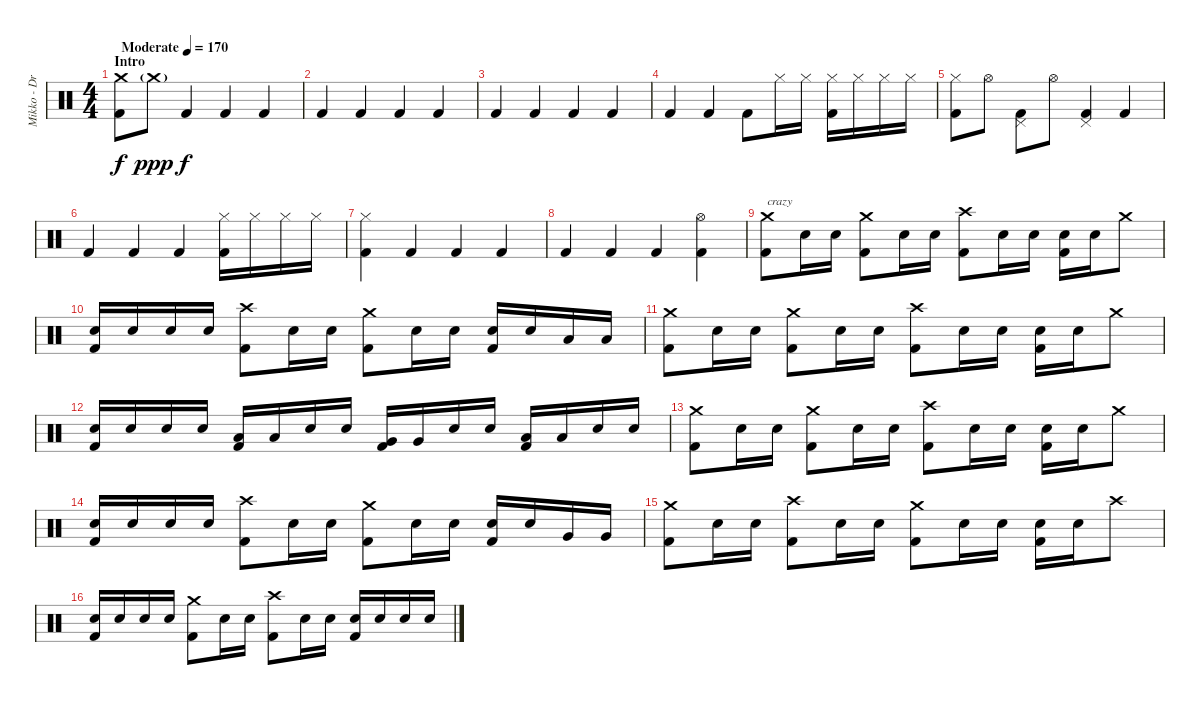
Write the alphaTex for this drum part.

\track ("Mikko - Drums" "Mikko - Dr") {instrument percussion}
\staff {score}
\articulation defaults
\ts (4 4)
\section ("" "Intro")
\tempo (170 "Moderate")
\clef neutral
\ks c
("Crash medium (hit)" "Kick (hit) 2").8{dy f} "Crash medium (hit)"{g}.8{dy ppp} "Kick (hit) 2".4{dy f} "Kick (hit) 2".4 "Kick (hit) 2".4 |
"Kick (hit) 2".4 "Kick (hit) 2".4 "Kick (hit) 2".4 "Kick (hit) 2".4 |
"Kick (hit) 2".4 "Kick (hit) 2".4 "Kick (hit) 2".4 "Kick (hit) 2".4 |
"Kick (hit) 2".4 "Kick (hit) 2".4 "Kick (hit) 2".8 "Hi-Hat (closed)".16 "Hi-Hat (closed)".16 ("Hi-Hat (closed)" "Kick (hit) 2").16 "Hi-Hat (closed)".16 "Hi-Hat (closed)".16 "Hi-Hat (closed)".16 |
("Hi-Hat (closed)" "Kick (hit) 2").8 "Hi-Hat (open)".8 ("Pedal Hi-Hat (hit)" "Kick (hit) 2").8 "Hi-Hat (open)".8 ("Pedal Hi-Hat (hit)" "Kick (hit) 2").4 "Kick (hit) 2".4 |
"Kick (hit) 2".4 "Kick (hit) 2".4 "Kick (hit) 2".4 ("Hi-Hat (closed)" "Kick (hit) 2").16 "Hi-Hat (closed)".16 "Hi-Hat (closed)".16 "Hi-Hat (closed)".16 |
("Hi-Hat (closed)" "Kick (hit) 2").4 "Kick (hit) 2".4 "Kick (hit) 2".4 "Kick (hit) 2".4 |
"Kick (hit) 2".4 "Kick (hit) 2".4 "Kick (hit) 2".4 ("Hi-Hat (open)" "Kick (hit) 2").4 |
("Crash medium (hit)" "Kick (hit) 2").8{txt "crazy"} "Snare (hit) 2".16 "Snare (hit) 2".16 ("Crash medium (hit)" "Kick (hit) 2").8 "Snare (hit) 2".16 "Snare (hit) 2".16 ("Crash high (hit)" "Kick (hit) 2").8 "Snare (hit) 2".16 "Snare (hit) 2".16 ("Snare (hit) 2" "Kick (hit) 2").16 "Snare (hit) 2".16 "Crash medium (hit)".8 |
("Snare (hit) 2" "Kick (hit) 2").16 "Snare (hit) 2".16 "Snare (hit) 2".16 "Snare (hit) 2".16 ("Crash high (hit)" "Kick (hit) 2").8 "Snare (hit) 2".16 "Snare (hit) 2".16 ("Crash medium (hit)" "Kick (hit) 2").8 "Snare (hit) 2".16 "Snare (hit) 2".16 ("Snare (hit) 2" "Kick (hit) 2").16 "Snare (hit) 2".16 "Low Tom (hit)".16 "Low Tom (hit)".16 |
("Crash medium (hit)" "Kick (hit) 2").8 "Snare (hit) 2".16 "Snare (hit) 2".16 ("Crash medium (hit)" "Kick (hit) 2").8 "Snare (hit) 2".16 "Snare (hit) 2".16 ("Crash high (hit)" "Kick (hit) 2").8 "Snare (hit) 2".16 "Snare (hit) 2".16 ("Snare (hit) 2" "Kick (hit) 2").16 "Snare (hit) 2".16 "Crash medium (hit)".8 |
("Snare (hit) 2" "Kick (hit) 2").16 "Snare (hit) 2".16 "Snare (hit) 2".16 "Snare (hit) 2".16 ("Low Tom (hit)" "Kick (hit) 2").16 "Low Tom (hit)".16 "Snare (hit) 2".16 "Snare (hit) 2".16 ("Very Low Tom (hit)" "Kick (hit) 2").16 "Very Low Tom (hit)".16 "Snare (hit) 2".16 "Snare (hit) 2".16 ("Low Tom (hit)" "Kick (hit) 2").16 "Low Tom (hit)".16 "Snare (hit) 2".16 "Snare (hit) 2".16 |
("Crash medium (hit)" "Kick (hit) 2").8 "Snare (hit) 2".16 "Snare (hit) 2".16 ("Crash medium (hit)" "Kick (hit) 2").8 "Snare (hit) 2".16 "Snare (hit) 2".16 ("Crash high (hit)" "Kick (hit) 2").8 "Snare (hit) 2".16 "Snare (hit) 2".16 ("Snare (hit) 2" "Kick (hit) 2").16 "Snare (hit) 2".16 "Crash medium (hit)".8 |
("Snare (hit) 2" "Kick (hit) 2").16 "Snare (hit) 2".16 "Snare (hit) 2".16 "Snare (hit) 2".16 ("Crash high (hit)" "Kick (hit) 2").8 "Snare (hit) 2".16 "Snare (hit) 2".16 ("Crash medium (hit)" "Kick (hit) 2").8 "Snare (hit) 2".16 "Snare (hit) 2".16 ("Snare (hit) 2" "Kick (hit) 2").16 "Snare (hit) 2".16 "Very Low Tom (hit)".16 "Very Low Tom (hit)".16 |
("Crash medium (hit)" "Kick (hit) 2").8 "Snare (hit) 2".16 "Snare (hit) 2".16 ("Crash high (hit)" "Kick (hit) 2").8 "Snare (hit) 2".16 "Snare (hit) 2".16 ("Crash medium (hit)" "Kick (hit) 2").8 "Snare (hit) 2".16 "Snare (hit) 2".16 ("Snare (hit) 2" "Kick (hit) 2").16 "Snare (hit) 2".16 "Crash high (hit)".8 |
("Snare (hit) 2" "Kick (hit) 2").16 "Snare (hit) 2".16 "Snare (hit) 2".16 "Snare (hit) 2".16 ("Crash medium (hit)" "Kick (hit) 2").8 "Snare (hit) 2".16 "Snare (hit) 2".16 ("Crash high (hit)" "Kick (hit) 2").8 "Snare (hit) 2".16 "Snare (hit) 2".16 ("Snare (hit) 2" "Kick (hit) 2").16 "Snare (hit) 2".16 "Snare (hit) 2".16 "Snare (hit) 2".16
